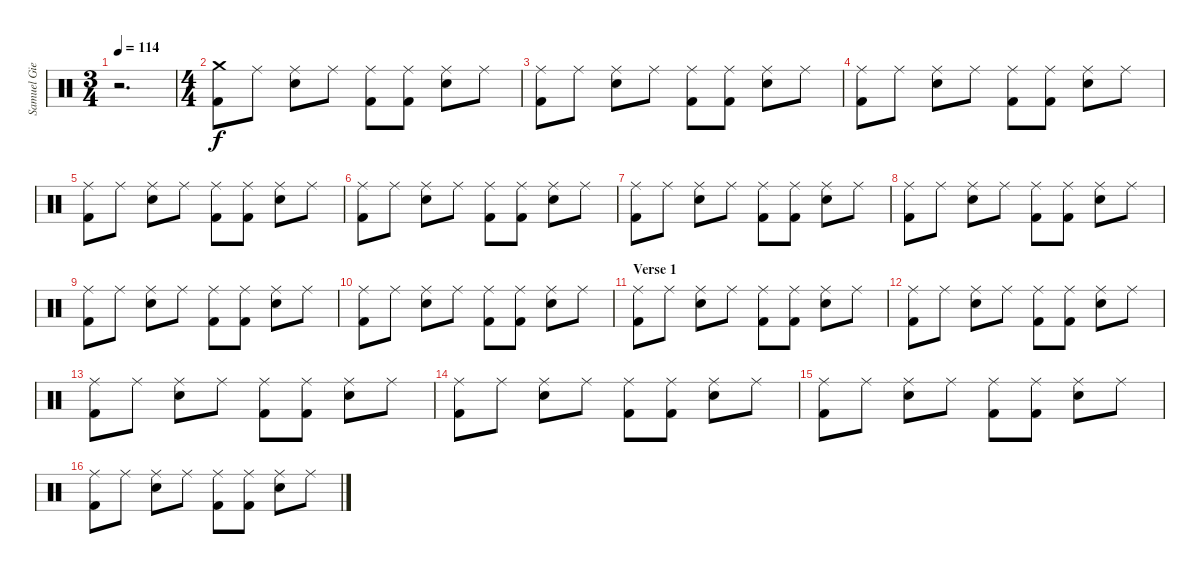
\track ("Samuel Giers - Drum" "Samuel Gie") {instrument percussion}
\staff {score}
\articulation defaults
\ts (3 4)
\tempo 114
\clef neutral
\ks c
r.2{d dy f} |
\ts (4 4)
("Crash medium (hit)" "Kick (hit) 2").8 "Ride (middle)".8 ("Ride (middle)" "Snare (hit) 2").8 "Ride (middle)".8 ("Ride (middle)" "Kick (hit) 2").8 ("Ride (middle)" "Kick (hit) 2").8 ("Ride (middle)" "Snare (hit) 2").8 "Ride (middle)".8 |
("Ride (middle)" "Kick (hit) 2").8 "Ride (middle)".8 ("Ride (middle)" "Snare (hit) 2").8 "Ride (middle)".8 ("Ride (middle)" "Kick (hit) 2").8 ("Ride (middle)" "Kick (hit) 2").8 ("Ride (middle)" "Snare (hit) 2").8 "Ride (middle)".8 |
("Ride (middle)" "Kick (hit) 2").8 "Ride (middle)".8 ("Ride (middle)" "Snare (hit) 2").8 "Ride (middle)".8 ("Ride (middle)" "Kick (hit) 2").8 ("Ride (middle)" "Kick (hit) 2").8 ("Ride (middle)" "Snare (hit) 2").8 "Ride (middle)".8 |
("Ride (middle)" "Kick (hit) 2").8 "Ride (middle)".8 ("Ride (middle)" "Snare (hit) 2").8 "Ride (middle)".8 ("Ride (middle)" "Kick (hit) 2").8 ("Ride (middle)" "Kick (hit) 2").8 ("Ride (middle)" "Snare (hit) 2").8 "Ride (middle)".8 |
("Ride (middle)" "Kick (hit) 2").8 "Ride (middle)".8 ("Ride (middle)" "Snare (hit) 2").8 "Ride (middle)".8 ("Ride (middle)" "Kick (hit) 2").8 ("Ride (middle)" "Kick (hit) 2").8 ("Ride (middle)" "Snare (hit) 2").8 "Ride (middle)".8 |
("Ride (middle)" "Kick (hit) 2").8 "Ride (middle)".8 ("Ride (middle)" "Snare (hit) 2").8 "Ride (middle)".8 ("Ride (middle)" "Kick (hit) 2").8 ("Ride (middle)" "Kick (hit) 2").8 ("Ride (middle)" "Snare (hit) 2").8 "Ride (middle)".8 |
("Ride (middle)" "Kick (hit) 2").8 "Ride (middle)".8 ("Ride (middle)" "Snare (hit) 2").8 "Ride (middle)".8 ("Ride (middle)" "Kick (hit) 2").8 ("Ride (middle)" "Kick (hit) 2").8 ("Ride (middle)" "Snare (hit) 2").8 "Ride (middle)".8 |
("Ride (middle)" "Kick (hit) 2").8 "Ride (middle)".8 ("Ride (middle)" "Snare (hit) 2").8 "Ride (middle)".8 ("Ride (middle)" "Kick (hit) 2").8 ("Ride (middle)" "Kick (hit) 2").8 ("Ride (middle)" "Snare (hit) 2").8 "Ride (middle)".8 |
("Ride (middle)" "Kick (hit) 2").8 "Ride (middle)".8 ("Ride (middle)" "Snare (hit) 2").8 "Ride (middle)".8 ("Ride (middle)" "Kick (hit) 2").8 ("Ride (middle)" "Kick (hit) 2").8 ("Ride (middle)" "Snare (hit) 2").8 "Ride (middle)".8 |
\section ("" "Verse 1")
("Ride (middle)" "Kick (hit) 2").8 "Ride (middle)".8 ("Ride (middle)" "Snare (hit) 2").8 "Ride (middle)".8 ("Ride (middle)" "Kick (hit) 2").8 ("Ride (middle)" "Kick (hit) 2").8 ("Ride (middle)" "Snare (hit) 2").8 "Ride (middle)".8 |
("Ride (middle)" "Kick (hit) 2").8 "Ride (middle)".8 ("Ride (middle)" "Snare (hit) 2").8 "Ride (middle)".8 ("Ride (middle)" "Kick (hit) 2").8 ("Ride (middle)" "Kick (hit) 2").8 ("Ride (middle)" "Snare (hit) 2").8 "Ride (middle)".8 |
("Ride (middle)" "Kick (hit) 2").8 "Ride (middle)".8 ("Ride (middle)" "Snare (hit) 2").8 "Ride (middle)".8 ("Ride (middle)" "Kick (hit) 2").8 ("Ride (middle)" "Kick (hit) 2").8 ("Ride (middle)" "Snare (hit) 2").8 "Ride (middle)".8 |
("Ride (middle)" "Kick (hit) 2").8 "Ride (middle)".8 ("Ride (middle)" "Snare (hit) 2").8 "Ride (middle)".8 ("Ride (middle)" "Kick (hit) 2").8 ("Ride (middle)" "Kick (hit) 2").8 ("Ride (middle)" "Snare (hit) 2").8 "Ride (middle)".8 |
("Ride (middle)" "Kick (hit) 2").8 "Ride (middle)".8 ("Ride (middle)" "Snare (hit) 2").8 "Ride (middle)".8 ("Ride (middle)" "Kick (hit) 2").8 ("Ride (middle)" "Kick (hit) 2").8 ("Ride (middle)" "Snare (hit) 2").8 "Ride (middle)".8 |
("Ride (middle)" "Kick (hit) 2").8 "Ride (middle)".8 ("Ride (middle)" "Snare (hit) 2").8 "Ride (middle)".8 ("Ride (middle)" "Kick (hit) 2").8 ("Ride (middle)" "Kick (hit) 2").8 ("Ride (middle)" "Snare (hit) 2").8 "Ride (middle)".8
